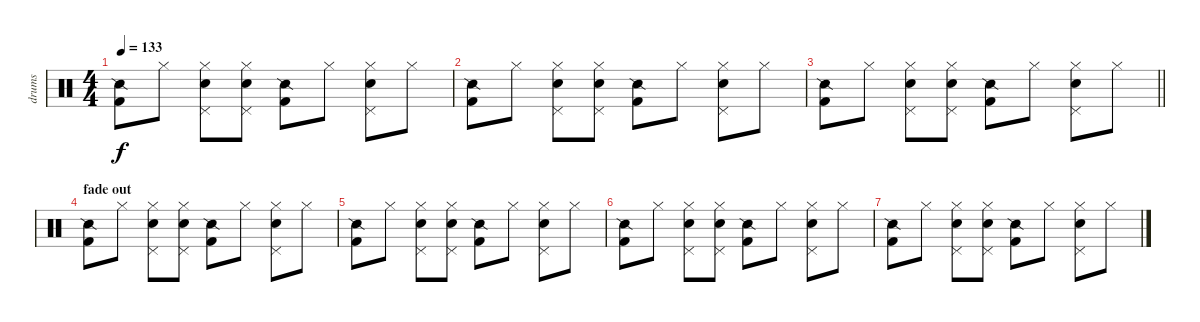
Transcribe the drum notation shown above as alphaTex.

\track ("drums" "drums") {instrument percussion}
\staff {score}
\articulation defaults
\ts (4 4)
\tempo 133
\clef neutral
\ks c
("Snare (side stick) 2" "Kick (hit) 2").8{dy f} "Hi-Hat (closed)".8 ("Hi-Hat (closed)" "Electric Snare (hit)" "Pedal Hi-Hat (hit)").8 ("Hi-Hat (closed)" "Electric Snare (hit)" "Pedal Hi-Hat (hit)").8 ("Snare (side stick) 2" "Kick (hit) 2").8 "Hi-Hat (closed)".8 ("Hi-Hat (closed)" "Electric Snare (hit)" "Pedal Hi-Hat (hit)").8 "Hi-Hat (closed)".8 |
("Snare (side stick) 2" "Kick (hit) 2").8 "Hi-Hat (closed)".8 ("Hi-Hat (closed)" "Electric Snare (hit)" "Pedal Hi-Hat (hit)").8 ("Hi-Hat (closed)" "Electric Snare (hit)" "Pedal Hi-Hat (hit)").8 ("Snare (side stick) 2" "Kick (hit) 2").8 "Hi-Hat (closed)".8 ("Hi-Hat (closed)" "Electric Snare (hit)" "Pedal Hi-Hat (hit)").8 "Hi-Hat (closed)".8 |
\barLineRight lightlight
("Snare (side stick) 2" "Kick (hit) 2").8 "Hi-Hat (closed)".8 ("Hi-Hat (closed)" "Electric Snare (hit)" "Pedal Hi-Hat (hit)").8 ("Hi-Hat (closed)" "Electric Snare (hit)" "Pedal Hi-Hat (hit)").8 ("Snare (side stick) 2" "Kick (hit) 2").8 "Hi-Hat (closed)".8 ("Hi-Hat (closed)" "Electric Snare (hit)" "Pedal Hi-Hat (hit)").8 "Hi-Hat (closed)".8 |
\section ("" "fade out")
("Snare (side stick) 2" "Kick (hit) 2").8 "Hi-Hat (closed)".8 ("Hi-Hat (closed)" "Electric Snare (hit)" "Pedal Hi-Hat (hit)").8 ("Hi-Hat (closed)" "Electric Snare (hit)" "Pedal Hi-Hat (hit)").8 ("Snare (side stick) 2" "Kick (hit) 2").8 "Hi-Hat (closed)".8 ("Hi-Hat (closed)" "Electric Snare (hit)" "Pedal Hi-Hat (hit)").8 "Hi-Hat (closed)".8 |
("Snare (side stick) 2" "Kick (hit) 2").8 "Hi-Hat (closed)".8 ("Hi-Hat (closed)" "Electric Snare (hit)" "Pedal Hi-Hat (hit)").8 ("Hi-Hat (closed)" "Electric Snare (hit)" "Pedal Hi-Hat (hit)").8 ("Snare (side stick) 2" "Kick (hit) 2").8 "Hi-Hat (closed)".8 ("Hi-Hat (closed)" "Electric Snare (hit)" "Pedal Hi-Hat (hit)").8 "Hi-Hat (closed)".8 |
("Snare (side stick) 2" "Kick (hit) 2").8 "Hi-Hat (closed)".8 ("Hi-Hat (closed)" "Electric Snare (hit)" "Pedal Hi-Hat (hit)").8 ("Hi-Hat (closed)" "Electric Snare (hit)" "Pedal Hi-Hat (hit)").8 ("Snare (side stick) 2" "Kick (hit) 2").8 "Hi-Hat (closed)".8 ("Hi-Hat (closed)" "Electric Snare (hit)" "Pedal Hi-Hat (hit)").8 "Hi-Hat (closed)".8 |
("Snare (side stick) 2" "Kick (hit) 2").8 "Hi-Hat (closed)".8 ("Hi-Hat (closed)" "Electric Snare (hit)" "Pedal Hi-Hat (hit)").8 ("Hi-Hat (closed)" "Electric Snare (hit)" "Pedal Hi-Hat (hit)").8 ("Snare (side stick) 2" "Kick (hit) 2").8 "Hi-Hat (closed)".8 ("Hi-Hat (closed)" "Electric Snare (hit)" "Pedal Hi-Hat (hit)").8 "Hi-Hat (closed)".8
